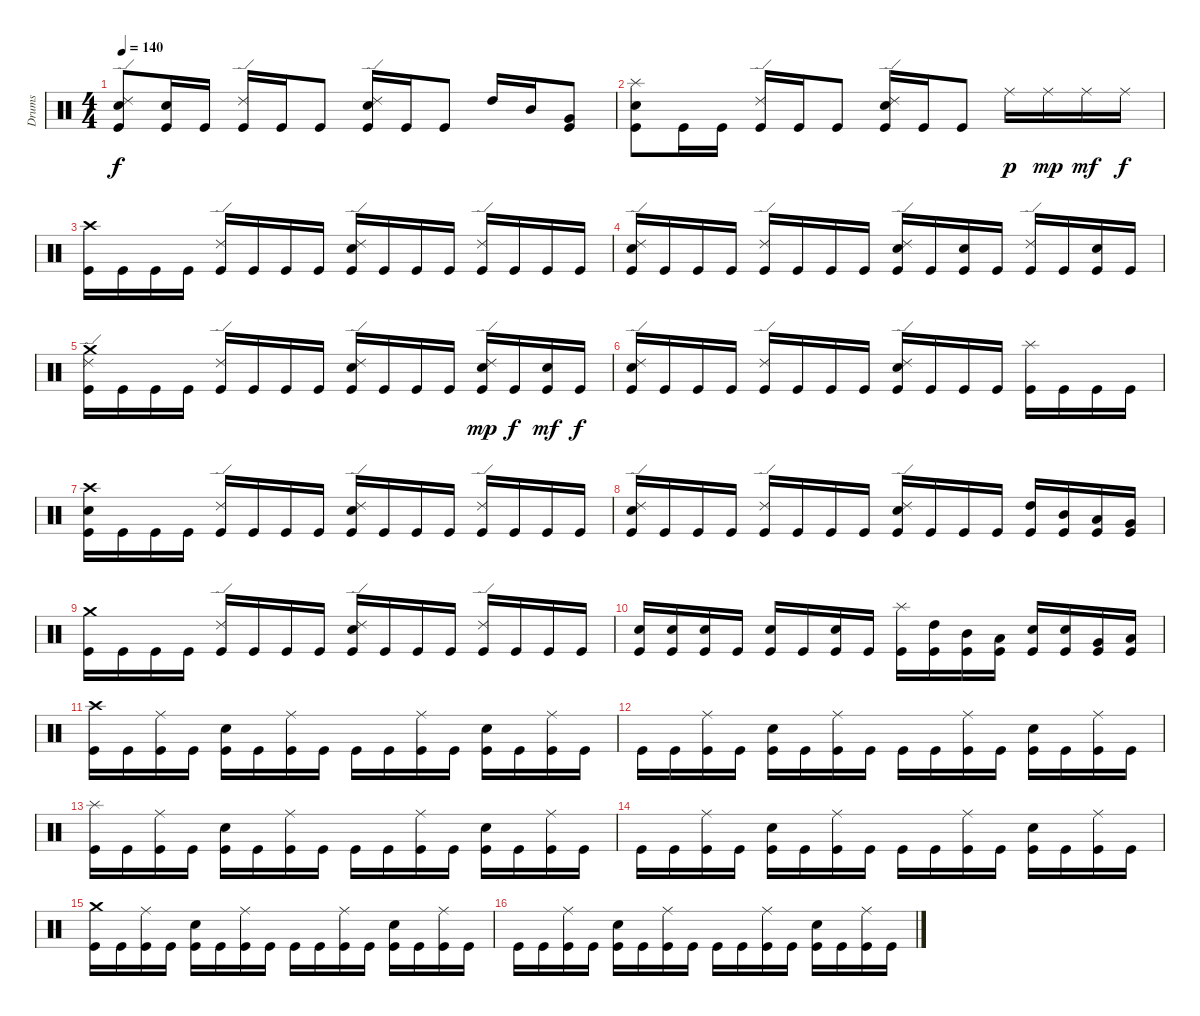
\track ("Drums" "Drums") {instrument percussion}
\staff {score}
\articulation defaults
\ts (4 4)
\tempo 140
\clef neutral
\ks c
("Ride (edge) 2" "Electric Snare (hit)" "Kick (hit)").8{dy f} ("Electric Snare (hit)" "Kick (hit)").16 "Kick (hit)".16 ("Ride (edge) 2" "Kick (hit)").16 "Kick (hit)".16 "Kick (hit)".8 ("Ride (edge) 2" "Electric Snare (hit)" "Kick (hit)").16 "Kick (hit)".16 "Kick (hit)".8 "High Tom (hit)".16 "Mid Tom (hit)".16 ("Very Low Tom (hit)" "Kick (hit)").8 |
("Splash (hit)" "Electric Snare (hit)" "Kick (hit)").8 "Kick (hit)".16 "Kick (hit)".16 ("Ride (edge) 2" "Kick (hit)").16 "Kick (hit)".16 "Kick (hit)".8 ("Ride (edge) 2" "Electric Snare (hit)" "Kick (hit)").16 "Kick (hit)".16 "Kick (hit)".8 "Ride (middle)".16{dy p} "Ride (middle)".16{dy mp} "Ride (middle)".16{dy mf} "Ride (middle)".16{dy f} |
("Crash high (hit)" "Kick (hit)").16 "Kick (hit)".16 "Kick (hit)".16 "Kick (hit)".16 ("Ride (edge) 2" "Kick (hit)").16 "Kick (hit)".16 "Kick (hit)".16 "Kick (hit)".16 ("Ride (edge) 2" "Electric Snare (hit)" "Kick (hit)").16 "Kick (hit)".16 "Kick (hit)".16 "Kick (hit)".16 ("Ride (edge) 2" "Kick (hit)").16 "Kick (hit)".16 "Kick (hit)".16 "Kick (hit)".16 |
("Ride (edge) 2" "Electric Snare (hit)" "Kick (hit)").16 "Kick (hit)".16 "Kick (hit)".16 "Kick (hit)".16 ("Ride (edge) 2" "Kick (hit)").16 "Kick (hit)".16 "Kick (hit)".16 "Kick (hit)".16 ("Ride (edge) 2" "Electric Snare (hit)" "Kick (hit)").16 "Kick (hit)".16 ("Electric Snare (hit)" "Kick (hit)").16 "Kick (hit)".16 ("Ride (edge) 2" "Kick (hit)").16 "Kick (hit)".16 ("Electric Snare (hit)" "Kick (hit)").16 "Kick (hit)".16 |
("Crash medium (hit)" "Ride (edge) 2" "Kick (hit)").16 "Kick (hit)".16 "Kick (hit)".16 "Kick (hit)".16 ("Ride (edge) 2" "Kick (hit)").16 "Kick (hit)".16 "Kick (hit)".16 "Kick (hit)".16 ("Ride (edge) 2" "Electric Snare (hit)" "Kick (hit)").16 "Kick (hit)".16 "Kick (hit)".16 "Kick (hit)".16 ("Ride (edge) 2" "Electric Snare (hit)" "Kick (hit)").16{dy mp} "Kick (hit)".16{dy f} ("Electric Snare (hit)" "Kick (hit)").16{dy mf} "Kick (hit)".16{dy f} |
("Ride (edge) 2" "Electric Snare (hit)" "Kick (hit)").16 "Kick (hit)".16 "Kick (hit)".16 "Kick (hit)".16 ("Ride (edge) 2" "Kick (hit)").16 "Kick (hit)".16 "Kick (hit)".16 "Kick (hit)".16 ("Ride (edge) 2" "Electric Snare (hit)" "Kick (hit)").16 "Kick (hit)".16 "Kick (hit)".16 "Kick (hit)".16 ("Splash (hit)" "Kick (hit)").16 "Kick (hit)".16 "Kick (hit)".16 "Kick (hit)".16 |
("Crash high (hit)" "Electric Snare (hit)" "Kick (hit)").16 "Kick (hit)".16 "Kick (hit)".16 "Kick (hit)".16 ("Ride (edge) 2" "Kick (hit)").16 "Kick (hit)".16 "Kick (hit)".16 "Kick (hit)".16 ("Ride (edge) 2" "Electric Snare (hit)" "Kick (hit)").16 "Kick (hit)".16 "Kick (hit)".16 "Kick (hit)".16 ("Ride (edge) 2" "Kick (hit)").16 "Kick (hit)".16 "Kick (hit)".16 "Kick (hit)".16 |
("Ride (edge) 2" "Electric Snare (hit)" "Kick (hit)").16 "Kick (hit)".16 "Kick (hit)".16 "Kick (hit)".16 ("Ride (edge) 2" "Kick (hit)").16 "Kick (hit)".16 "Kick (hit)".16 "Kick (hit)".16 ("Ride (edge) 2" "Electric Snare (hit)" "Kick (hit)").16 "Kick (hit)".16 "Kick (hit)".16 "Kick (hit)".16 ("High Tom (hit)" "Kick (hit)").16 ("Mid Tom (hit)" "Kick (hit)").16 ("Low Tom (hit)" "Kick (hit)").16 ("Very Low Tom (hit)" "Kick (hit)").16 |
("Crash medium (hit)" "Kick (hit)").16 "Kick (hit)".16 "Kick (hit)".16 "Kick (hit)".16 ("Ride (edge) 2" "Kick (hit)").16 "Kick (hit)".16 "Kick (hit)".16 "Kick (hit)".16 ("Ride (edge) 2" "Electric Snare (hit)" "Kick (hit)").16 "Kick (hit)".16 "Kick (hit)".16 "Kick (hit)".16 ("Ride (edge) 2" "Kick (hit)").16 "Kick (hit)".16 "Kick (hit)".16 "Kick (hit)".16 |
("Electric Snare (hit)" "Kick (hit)").16 ("Electric Snare (hit)" "Kick (hit)").16 ("Electric Snare (hit)" "Kick (hit)").16 "Kick (hit)".16 ("Electric Snare (hit)" "Kick (hit)").16 "Kick (hit)".16 ("Electric Snare (hit)" "Kick (hit)").16 "Kick (hit)".16 ("Splash (hit)" "Kick (hit)").16 ("High Tom (hit)" "Kick (hit)").16 ("Mid Tom (hit)" "Kick (hit)").16 ("Low Tom (hit)" "Kick (hit)").16 ("Electric Snare (hit)" "Kick (hit)").16 ("Electric Snare (hit)" "Kick (hit)").16 ("Very Low Tom (hit)" "Kick (hit)").16 ("Low Floor Tom (hit)" "Kick (hit)").16 |
("Crash high (hit)" "Kick (hit)").16 "Kick (hit)".16 ("Ride (middle)" "Kick (hit)").16 "Kick (hit)".16 ("Snare (hit) 2" "Kick (hit)").16 "Kick (hit)".16 ("Ride (middle)" "Kick (hit)").16 "Kick (hit)".16 "Kick (hit)".16 "Kick (hit)".16 ("Ride (middle)" "Kick (hit)").16 "Kick (hit)".16 ("Snare (hit) 2" "Kick (hit)").16 "Kick (hit)".16 ("Ride (middle)" "Kick (hit)").16 "Kick (hit)".16 |
"Kick (hit)".16 "Kick (hit)".16 ("Ride (middle)" "Kick (hit)").16 "Kick (hit)".16 ("Snare (hit) 2" "Kick (hit)").16 "Kick (hit)".16 ("Ride (middle)" "Kick (hit)").16 "Kick (hit)".16 "Kick (hit)".16 "Kick (hit)".16 ("Ride (middle)" "Kick (hit)").16 "Kick (hit)".16 ("Snare (hit) 2" "Kick (hit)").16 "Kick (hit)".16 ("Ride (middle)" "Kick (hit)").16 "Kick (hit)".16 |
("Splash (hit)" "Kick (hit)").16{volume 0} "Kick (hit)".16 ("Ride (middle)" "Kick (hit)").16 "Kick (hit)".16 ("Snare (hit) 2" "Kick (hit)").16 "Kick (hit)".16 ("Ride (middle)" "Kick (hit)").16 "Kick (hit)".16 "Kick (hit)".16 "Kick (hit)".16 ("Ride (middle)" "Kick (hit)").16 "Kick (hit)".16 ("Snare (hit) 2" "Kick (hit)").16 "Kick (hit)".16 ("Ride (middle)" "Kick (hit)").16 "Kick (hit)".16 |
"Kick (hit)".16 "Kick (hit)".16 ("Ride (middle)" "Kick (hit)").16 "Kick (hit)".16 ("Snare (hit) 2" "Kick (hit)").16 "Kick (hit)".16 ("Ride (middle)" "Kick (hit)").16 "Kick (hit)".16 "Kick (hit)".16 "Kick (hit)".16 ("Ride (middle)" "Kick (hit)").16 "Kick (hit)".16 ("Snare (hit) 2" "Kick (hit)").16 "Kick (hit)".16 ("Ride (middle)" "Kick (hit)").16 "Kick (hit)".16 |
("Crash medium (hit)" "Kick (hit)").16 "Kick (hit)".16 ("Ride (middle)" "Kick (hit)").16 "Kick (hit)".16 ("Snare (hit) 2" "Kick (hit)").16 "Kick (hit)".16 ("Ride (middle)" "Kick (hit)").16 "Kick (hit)".16 "Kick (hit)".16 "Kick (hit)".16 ("Ride (middle)" "Kick (hit)").16 "Kick (hit)".16 ("Snare (hit) 2" "Kick (hit)").16 "Kick (hit)".16 ("Ride (middle)" "Kick (hit)").16 "Kick (hit)".16 |
"Kick (hit)".16 "Kick (hit)".16 ("Ride (middle)" "Kick (hit)").16 "Kick (hit)".16 ("Snare (hit) 2" "Kick (hit)").16 "Kick (hit)".16 ("Ride (middle)" "Kick (hit)").16 "Kick (hit)".16 "Kick (hit)".16 "Kick (hit)".16 ("Ride (middle)" "Kick (hit)").16 "Kick (hit)".16 ("Snare (hit) 2" "Kick (hit)").16 "Kick (hit)".16 ("Ride (middle)" "Kick (hit)").16 "Kick (hit)".16
